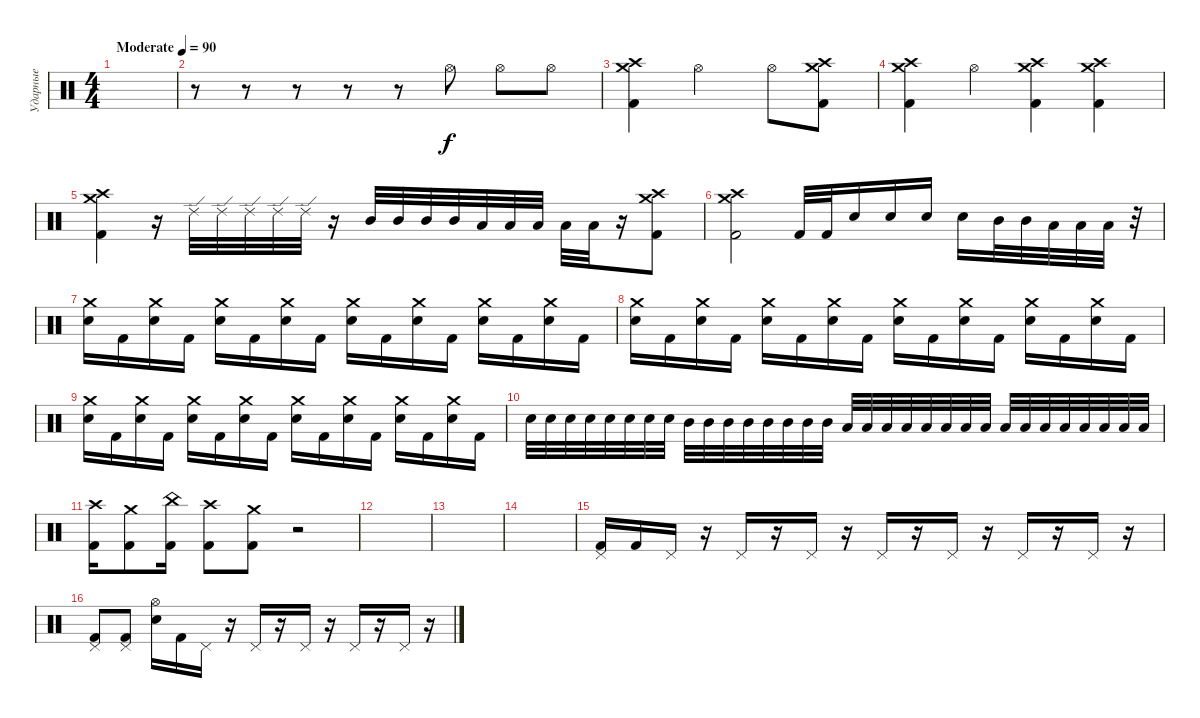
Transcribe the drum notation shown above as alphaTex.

\track ("Ударные" "Ударные") {instrument percussion}
\staff {score}
\articulation defaults
\ts (4 4)
\tempo (90 "Moderate")
\clef neutral
\ks c
|
r.8 r.8 r.8 r.8 r.8 "Hi-Hat (open)".8 "Hi-Hat (open)".8 "Hi-Hat (open)".8 |
("Crash medium (hit)" "Crash high (hit)" "Kick (hit) 2").4{dy f} "Hi-Hat (open)".2 "Hi-Hat (open)".8 ("Crash medium (hit)" "Crash high (hit)" "Kick (hit) 2").8 |
("Crash medium (hit)" "Crash high (hit)" "Kick (hit) 2").4 "Hi-Hat (open)".4 ("Crash medium (hit)" "Crash high (hit)" "Kick (hit) 2").4 ("Crash medium (hit)" "Crash high (hit)" "Kick (hit) 2").4 |
("Crash high (hit)" "Crash medium (hit)" "Kick (hit) 2").4 r.16 "Ride (edge) 2".32 "Ride (edge) 2".32 "Ride (edge) 2".32 "Ride (edge) 2".32 "Ride (edge) 2".32 r.16 "Mid Tom (hit)".32 "Mid Tom (hit)".32 "Mid Tom (hit)".32 "Mid Tom (hit)".32 "Low Tom (hit)".32 "Low Tom (hit)".32 "Low Tom (hit)".32 "Low Tom (hit)".32 "Low Floor Tom (hit)".32 r.16 ("Crash high (hit)" "Crash medium (hit)" "Kick (hit) 2").8 |
("Crash high (hit)" "Crash medium (hit)" "Kick (hit) 2").2 "Kick (hit) 2".32 "Kick (hit) 2".32 "Electric Snare (hit)".16 "Electric Snare (hit)".16 "Electric Snare (hit)".16 "Electric Snare (hit)".16 "Mid Tom (hit)".32 "Mid Tom (hit)".32 "Low Tom (hit)".32 "Low Tom (hit)".32 "Low Floor Tom (hit)".32 r.32 |
("Crash medium (hit)" "Electric Snare (hit)").16 "Kick (hit) 2".16 ("Crash medium (hit)" "Electric Snare (hit)").16 "Kick (hit) 2".16 ("Crash medium (hit)" "Electric Snare (hit)").16 "Kick (hit) 2".16 ("Crash medium (hit)" "Electric Snare (hit)").16 "Kick (hit) 2".16 ("Crash medium (hit)" "Electric Snare (hit)").16 "Kick (hit) 2".16 ("Crash medium (hit)" "Electric Snare (hit)").16 "Kick (hit) 2".16 ("Crash medium (hit)" "Electric Snare (hit)").16 "Kick (hit) 2".16 ("Crash medium (hit)" "Electric Snare (hit)").16 "Kick (hit) 2".16 |
("Crash medium (hit)" "Electric Snare (hit)").16 "Kick (hit) 2".16 ("Crash medium (hit)" "Electric Snare (hit)").16 "Kick (hit) 2".16 ("Crash medium (hit)" "Electric Snare (hit)").16 "Kick (hit) 2".16 ("Crash medium (hit)" "Electric Snare (hit)").16 "Kick (hit) 2".16 ("Crash medium (hit)" "Electric Snare (hit)").16 "Kick (hit) 2".16 ("Crash medium (hit)" "Electric Snare (hit)").16 "Kick (hit) 2".16 ("Crash medium (hit)" "Electric Snare (hit)").16 "Kick (hit) 2".16 ("Crash medium (hit)" "Electric Snare (hit)").16 "Kick (hit) 2".16 |
("Crash medium (hit)" "Electric Snare (hit)").16 "Kick (hit) 2".16 ("Crash medium (hit)" "Electric Snare (hit)").16 "Kick (hit) 2".16 ("Crash medium (hit)" "Electric Snare (hit)").16 "Kick (hit) 2".16 ("Crash medium (hit)" "Electric Snare (hit)").16 "Kick (hit) 2".16 ("Crash medium (hit)" "Electric Snare (hit)").16 "Kick (hit) 2".16 ("Crash medium (hit)" "Electric Snare (hit)").16 "Kick (hit) 2".16 ("Crash medium (hit)" "Electric Snare (hit)").16 "Kick (hit) 2".16 ("Crash medium (hit)" "Electric Snare (hit)").16 "Kick (hit) 2".16 |
"Electric Snare (hit)".32 "Electric Snare (hit)".32 "Electric Snare (hit)".32 "Electric Snare (hit)".32 "Electric Snare (hit)".32 "Electric Snare (hit)".32 "Electric Snare (hit)".32 "Electric Snare (hit)".32 "Mid Tom (hit)".32 "Mid Tom (hit)".32 "Mid Tom (hit)".32 "Mid Tom (hit)".32 "Mid Tom (hit)".32 "Mid Tom (hit)".32 "Mid Tom (hit)".32 "Mid Tom (hit)".32 "Low Tom (hit)".32 "Low Tom (hit)".32 "Low Tom (hit)".32 "Low Tom (hit)".32 "Low Tom (hit)".32 "Low Tom (hit)".32 "Low Tom (hit)".32 "Low Tom (hit)".32 "Low Floor Tom (hit)".32 "Low Floor Tom (hit)".32 "Low Floor Tom (hit)".32 "Low Floor Tom (hit)".32 "Low Floor Tom (hit)".32 "Low Floor Tom (hit)".32 "Low Floor Tom (hit)".32 "Low Floor Tom (hit)".32 |
("Crash high (hit)" "Kick (hit) 2").16 ("Crash medium (hit)" "Kick (hit) 2").8 ("China (hit)" "Kick (hit) 2").16 ("Crash high (hit)" "Kick (hit) 2").8 ("Crash medium (hit)" "Kick (hit) 2").8 r.2 |
|
|
|
("Pedal Hi-Hat (hit)" "Kick (hit) 2").16 "Kick (hit) 2".16 "Pedal Hi-Hat (hit)".16 r.16 "Pedal Hi-Hat (hit)".16 r.16 "Pedal Hi-Hat (hit)".16 r.16 "Pedal Hi-Hat (hit)".16 r.16 "Pedal Hi-Hat (hit)".16 r.16 "Pedal Hi-Hat (hit)".16 r.16 "Pedal Hi-Hat (hit)".16 r.16 |
("Pedal Hi-Hat (hit)" "Kick (hit) 2").8 ("Pedal Hi-Hat (hit)" "Kick (hit) 2").8 ("Hi-Hat (open)" "Electric Snare (hit)").16 "Kick (hit) 2".16 "Pedal Hi-Hat (hit)".16 r.16 "Pedal Hi-Hat (hit)".16 r.16 "Pedal Hi-Hat (hit)".16 r.16 "Pedal Hi-Hat (hit)".16 r.16 "Pedal Hi-Hat (hit)".16 r.16
